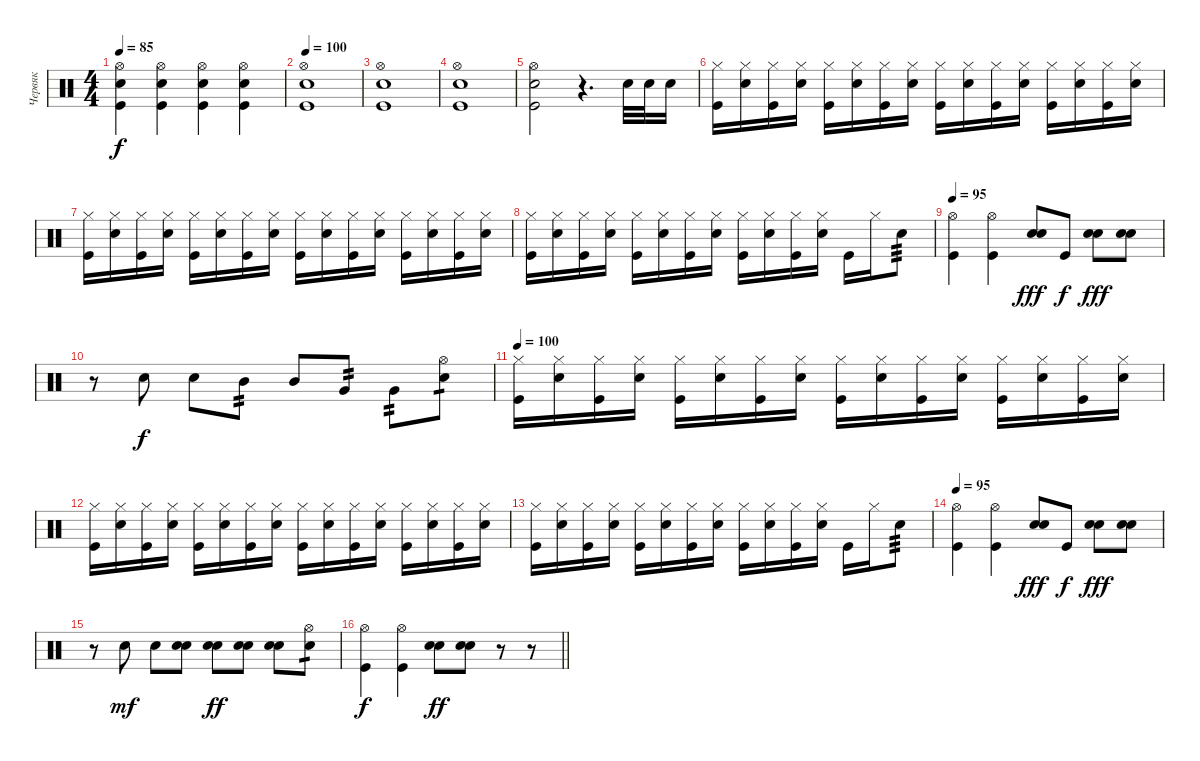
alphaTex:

\track ("Червяк" "Червяк") {instrument percussion}
\staff {score}
\articulation defaults
\ts (4 4)
\tempo 85
\clef neutral
\ks c
("Hi-Hat (open)" "Electric Snare (hit)" "Kick (hit)").4{dy f} ("Hi-Hat (open)" "Electric Snare (hit)" "Kick (hit)").4 ("Hi-Hat (open)" "Electric Snare (hit)" "Kick (hit)").4 ("Hi-Hat (open)" "Electric Snare (hit)" "Kick (hit)").4 |
\tempo 100
("Hi-Hat (open)" "Electric Snare (hit)" "Kick (hit)").1 |
("Hi-Hat (open)" "Electric Snare (hit)" "Kick (hit)").1 |
("Hi-Hat (open)" "Electric Snare (hit)" "Kick (hit)").1 |
("Hi-Hat (open)" "Electric Snare (hit)" "Kick (hit)").2 r.4{d} "Snare (hit) 2".32 "Snare (hit) 2".32 "Snare (hit) 2".16 |
("Hi-Hat (closed)" "Kick (hit)").16 ("Hi-Hat (closed)" "Electric Snare (hit)").16 ("Hi-Hat (closed)" "Kick (hit)").16 ("Hi-Hat (closed)" "Electric Snare (hit)").16 ("Hi-Hat (closed)" "Kick (hit)").16 ("Hi-Hat (closed)" "Electric Snare (hit)").16 ("Hi-Hat (closed)" "Kick (hit)").16 ("Hi-Hat (closed)" "Electric Snare (hit)").16 ("Hi-Hat (closed)" "Kick (hit)").16 ("Hi-Hat (closed)" "Electric Snare (hit)").16 ("Hi-Hat (closed)" "Kick (hit)").16 ("Hi-Hat (closed)" "Electric Snare (hit)").16 ("Hi-Hat (closed)" "Kick (hit)").16 ("Hi-Hat (closed)" "Electric Snare (hit)").16 ("Hi-Hat (closed)" "Kick (hit)").16 ("Hi-Hat (closed)" "Electric Snare (hit)").16 |
("Hi-Hat (closed)" "Kick (hit)").16 ("Hi-Hat (closed)" "Electric Snare (hit)").16 ("Hi-Hat (closed)" "Kick (hit)").16 ("Hi-Hat (closed)" "Electric Snare (hit)").16 ("Hi-Hat (closed)" "Kick (hit)").16 ("Hi-Hat (closed)" "Electric Snare (hit)").16 ("Hi-Hat (closed)" "Kick (hit)").16 ("Hi-Hat (closed)" "Electric Snare (hit)").16 ("Hi-Hat (closed)" "Kick (hit)").16 ("Hi-Hat (closed)" "Electric Snare (hit)").16 ("Hi-Hat (closed)" "Kick (hit)").16 ("Hi-Hat (closed)" "Electric Snare (hit)").16 ("Hi-Hat (closed)" "Kick (hit)").16 ("Hi-Hat (closed)" "Electric Snare (hit)").16 ("Hi-Hat (closed)" "Kick (hit)").16 ("Hi-Hat (closed)" "Electric Snare (hit)").16 |
("Hi-Hat (closed)" "Kick (hit)").16 ("Hi-Hat (closed)" "Electric Snare (hit)").16 ("Hi-Hat (closed)" "Kick (hit)").16 ("Hi-Hat (closed)" "Electric Snare (hit)").16 ("Hi-Hat (closed)" "Kick (hit)").16 ("Hi-Hat (closed)" "Electric Snare (hit)").16 ("Hi-Hat (closed)" "Kick (hit)").16 ("Hi-Hat (closed)" "Electric Snare (hit)").16 ("Hi-Hat (closed)" "Kick (hit)").16 ("Hi-Hat (closed)" "Electric Snare (hit)").16 ("Hi-Hat (closed)" "Kick (hit)").16 ("Hi-Hat (closed)" "Electric Snare (hit)").16 "Kick (hit)".16 "Hi-Hat (closed)".16 "Electric Snare (hit)".8{tp 3} |
\tempo 95
("Hi-Hat (open)" "Kick (hit)").4 ("Hi-Hat (open)" "Kick (hit)").4 ("Electric Snare (hit)" "Electric Snare (hit)").8{dy fff} "Kick (hit)".8{dy f} ("Electric Snare (hit)" "Electric Snare (hit)").8{dy fff} ("Electric Snare (hit)" "Electric Snare (hit)").8 |
r.8 "Electric Snare (hit)".8{dy f} "Electric Snare (hit)".8 "Mid Tom (hit)".8{tp 2} "Mid Tom (hit)".8 "Very Low Tom (hit)".8{tp 2} "Very Low Tom (hit)".8{tp 2} ("Hi-Hat (open)" "Electric Snare (hit)").8{tp 1} |
\tempo 100
("Hi-Hat (closed)" "Kick (hit)").16 ("Hi-Hat (closed)" "Electric Snare (hit)").16 ("Hi-Hat (closed)" "Kick (hit)").16 ("Hi-Hat (closed)" "Electric Snare (hit)").16 ("Hi-Hat (closed)" "Kick (hit)").16 ("Hi-Hat (closed)" "Electric Snare (hit)").16 ("Hi-Hat (closed)" "Kick (hit)").16 ("Hi-Hat (closed)" "Electric Snare (hit)").16 ("Hi-Hat (closed)" "Kick (hit)").16 ("Hi-Hat (closed)" "Electric Snare (hit)").16 ("Hi-Hat (closed)" "Kick (hit)").16 ("Hi-Hat (closed)" "Electric Snare (hit)").16 ("Hi-Hat (closed)" "Kick (hit)").16 ("Hi-Hat (closed)" "Electric Snare (hit)").16 ("Hi-Hat (closed)" "Kick (hit)").16 ("Hi-Hat (closed)" "Electric Snare (hit)").16 |
("Hi-Hat (closed)" "Kick (hit)").16 ("Hi-Hat (closed)" "Electric Snare (hit)").16 ("Hi-Hat (closed)" "Kick (hit)").16 ("Hi-Hat (closed)" "Electric Snare (hit)").16 ("Hi-Hat (closed)" "Kick (hit)").16 ("Hi-Hat (closed)" "Electric Snare (hit)").16 ("Hi-Hat (closed)" "Kick (hit)").16 ("Hi-Hat (closed)" "Electric Snare (hit)").16 ("Hi-Hat (closed)" "Kick (hit)").16 ("Hi-Hat (closed)" "Electric Snare (hit)").16 ("Hi-Hat (closed)" "Kick (hit)").16 ("Hi-Hat (closed)" "Electric Snare (hit)").16 ("Hi-Hat (closed)" "Kick (hit)").16 ("Hi-Hat (closed)" "Electric Snare (hit)").16 ("Hi-Hat (closed)" "Kick (hit)").16 ("Hi-Hat (closed)" "Electric Snare (hit)").16 |
("Hi-Hat (closed)" "Kick (hit)").16 ("Hi-Hat (closed)" "Electric Snare (hit)").16 ("Hi-Hat (closed)" "Kick (hit)").16 ("Hi-Hat (closed)" "Electric Snare (hit)").16 ("Hi-Hat (closed)" "Kick (hit)").16 ("Hi-Hat (closed)" "Electric Snare (hit)").16 ("Hi-Hat (closed)" "Kick (hit)").16 ("Hi-Hat (closed)" "Electric Snare (hit)").16 ("Hi-Hat (closed)" "Kick (hit)").16 ("Hi-Hat (closed)" "Electric Snare (hit)").16 ("Hi-Hat (closed)" "Kick (hit)").16 ("Hi-Hat (closed)" "Electric Snare (hit)").16 "Kick (hit)".16 "Hi-Hat (closed)".16 "Electric Snare (hit)".8{tp 3} |
\tempo 95
("Hi-Hat (open)" "Kick (hit)").4 ("Hi-Hat (open)" "Kick (hit)").4 ("Electric Snare (hit)" "Electric Snare (hit)").8{dy fff} "Kick (hit)".8{dy f} ("Electric Snare (hit)" "Electric Snare (hit)").8{dy fff} ("Electric Snare (hit)" "Electric Snare (hit)").8 |
r.8 "Electric Snare (hit)".8{dy mf} "Electric Snare (hit)".8 ("Electric Snare (hit)" "Electric Snare (hit)").8 ("Electric Snare (hit)" "Electric Snare (hit)").8{dy ff} ("Electric Snare (hit)" "Electric Snare (hit)").8 ("Electric Snare (hit)" "Electric Snare (hit)").8 ("Hi-Hat (open)" "Electric Snare (hit)").8{tp 1} |
\barLineRight lightlight
("Hi-Hat (open)" "Kick (hit)").4{dy f} ("Hi-Hat (open)" "Kick (hit)").4 ("Electric Snare (hit)" "Electric Snare (hit)").8{dy ff} ("Electric Snare (hit)" "Electric Snare (hit)").8 r.8 r.8
